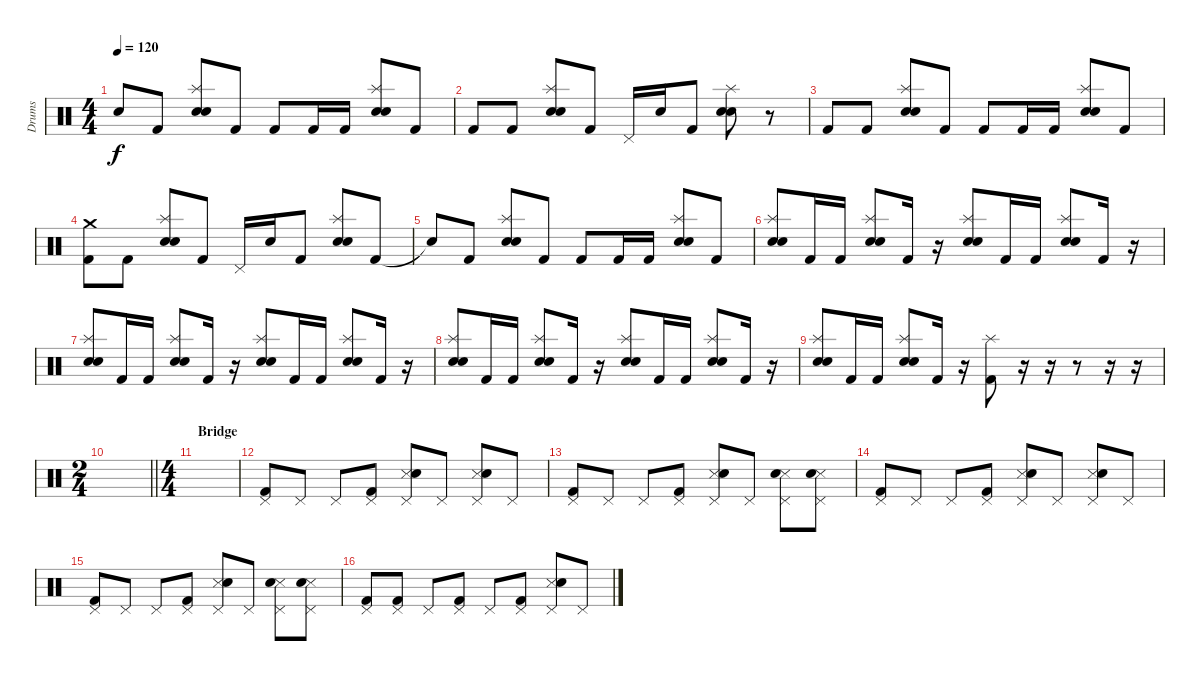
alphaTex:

\track ("Drums" "Drums") {instrument percussion}
\staff {score}
\articulation defaults
\ts (4 4)
\tempo 120
\clef neutral
\ks c "Snare (hit)"{t}.8{dy f} "Kick (hit) 2".8
("Splash (hit)" "Electric Snare (hit)" "Snare (hit) 2").8 "Kick (hit) 2".8 "Kick (hit) 2".8 "Kick (hit) 2".16 "Kick (hit) 2".16 ("Splash (hit)" "Electric Snare (hit)" "Snare (hit) 2").8 "Kick (hit) 2".8 |
"Kick (hit) 2".8 "Kick (hit) 2".8 ("Splash (hit)" "Electric Snare (hit)" "Snare (hit) 2").8 "Kick (hit) 2".8 "Pedal Hi-Hat (hit)".16 "Electric Snare (hit)".16 "Kick (hit) 2".8 ("Splash (hit)" "Electric Snare (hit)" "Snare (hit) 2").8 r.8 |
"Kick (hit) 2".8 "Kick (hit) 2".8 ("Splash (hit)" "Electric Snare (hit)" "Snare (hit) 2").8 "Kick (hit) 2".8 "Kick (hit) 2".8 "Kick (hit) 2".16 "Kick (hit) 2".16 ("Splash (hit)" "Electric Snare (hit)" "Snare (hit) 2").8 "Kick (hit) 2".8 |
("Crash medium (hit)" "Kick (hit) 2").8 "Kick (hit) 2".8 ("Splash (hit)" "Electric Snare (hit)" "Snare (hit) 2").8 "Kick (hit) 2".8 "Pedal Hi-Hat (hit)".16 "Electric Snare (hit)".16 "Kick (hit) 2".8 ("Splash (hit)" "Electric Snare (hit)" "Snare (hit) 2").8 "Kick (hit) 2".8 |
"Snare (hit)"{t}.8 "Kick (hit) 2".8 ("Splash (hit)" "Electric Snare (hit)" "Snare (hit) 2").8 "Kick (hit) 2".8 "Kick (hit) 2".8 "Kick (hit) 2".16 "Kick (hit) 2".16 ("Splash (hit)" "Electric Snare (hit)" "Snare (hit) 2").8 "Kick (hit) 2".8 |
("Splash (hit)" "Electric Snare (hit)" "Snare (hit) 2").8 "Kick (hit) 2".16 "Kick (hit) 2".16 ("Splash (hit)" "Electric Snare (hit)" "Snare (hit) 2").8 "Kick (hit) 2".16 r.16 ("Splash (hit)" "Electric Snare (hit)" "Snare (hit) 2").8 "Kick (hit) 2".16 "Kick (hit) 2".16 ("Splash (hit)" "Electric Snare (hit)" "Snare (hit) 2").8 "Kick (hit) 2".16 r.16 |
("Splash (hit)" "Electric Snare (hit)" "Snare (hit) 2").8 "Kick (hit) 2".16 "Kick (hit) 2".16 ("Splash (hit)" "Electric Snare (hit)" "Snare (hit) 2").8 "Kick (hit) 2".16 r.16 ("Splash (hit)" "Electric Snare (hit)" "Snare (hit) 2").8 "Kick (hit) 2".16 "Kick (hit) 2".16 ("Splash (hit)" "Electric Snare (hit)" "Snare (hit) 2").8 "Kick (hit) 2".16 r.16 |
("Splash (hit)" "Electric Snare (hit)" "Snare (hit) 2").8 "Kick (hit) 2".16 "Kick (hit) 2".16 ("Splash (hit)" "Electric Snare (hit)" "Snare (hit) 2").8 "Kick (hit) 2".16 r.16 ("Splash (hit)" "Electric Snare (hit)" "Snare (hit) 2").8 "Kick (hit) 2".16 "Kick (hit) 2".16 ("Splash (hit)" "Electric Snare (hit)" "Snare (hit) 2").8 "Kick (hit) 2".16 r.16 |
("Splash (hit)" "Electric Snare (hit)" "Snare (hit) 2").8 "Kick (hit) 2".16 "Kick (hit) 2".16 ("Splash (hit)" "Electric Snare (hit)" "Snare (hit) 2").8 "Kick (hit) 2".16 r.16 ("Splash (hit)" "Kick (hit) 2").8 r.16 r.16 r.8 r.16 r.16 |
\ts (2 4)
\barLineRight lightlight
|
\ts (4 4)
\section ("" "Bridge")
|
("Pedal Hi-Hat (hit)" "Kick (hit) 2").8 "Pedal Hi-Hat (hit)".8 "Pedal Hi-Hat (hit)".8 ("Pedal Hi-Hat (hit)" "Kick (hit) 2").8 ("Pedal Hi-Hat (hit)" "Snare (side stick) 3" "Electric Snare (hit)").8 "Pedal Hi-Hat (hit)".8 ("Pedal Hi-Hat (hit)" "Snare (side stick) 3" "Electric Snare (hit)").8 "Pedal Hi-Hat (hit)".8 |
("Pedal Hi-Hat (hit)" "Kick (hit) 2").8 "Pedal Hi-Hat (hit)".8 "Pedal Hi-Hat (hit)".8 ("Pedal Hi-Hat (hit)" "Kick (hit) 2").8 ("Pedal Hi-Hat (hit)" "Snare (side stick) 3" "Electric Snare (hit)").8 "Pedal Hi-Hat (hit)".8 ("Pedal Hi-Hat (hit)" "Snare (side stick) 3" "Electric Snare (hit)").8 ("Pedal Hi-Hat (hit)" "Snare (side stick) 3" "Electric Snare (hit)").8 |
("Pedal Hi-Hat (hit)" "Kick (hit) 2").8 "Pedal Hi-Hat (hit)".8 "Pedal Hi-Hat (hit)".8 ("Pedal Hi-Hat (hit)" "Kick (hit) 2").8 ("Pedal Hi-Hat (hit)" "Snare (side stick) 3" "Electric Snare (hit)").8 "Pedal Hi-Hat (hit)".8 ("Pedal Hi-Hat (hit)" "Snare (side stick) 3" "Electric Snare (hit)").8 "Pedal Hi-Hat (hit)".8 |
("Pedal Hi-Hat (hit)" "Kick (hit) 2").8 "Pedal Hi-Hat (hit)".8 "Pedal Hi-Hat (hit)".8 ("Pedal Hi-Hat (hit)" "Kick (hit) 2").8 ("Pedal Hi-Hat (hit)" "Snare (side stick) 3" "Electric Snare (hit)").8 "Pedal Hi-Hat (hit)".8 ("Pedal Hi-Hat (hit)" "Snare (side stick) 3" "Electric Snare (hit)").8 ("Pedal Hi-Hat (hit)" "Snare (side stick) 3" "Electric Snare (hit)").8 |
("Pedal Hi-Hat (hit)" "Kick (hit) 2").8 ("Pedal Hi-Hat (hit)" "Kick (hit) 2").8 "Pedal Hi-Hat (hit)".8 ("Pedal Hi-Hat (hit)" "Kick (hit) 2").8 "Pedal Hi-Hat (hit)".8 ("Pedal Hi-Hat (hit)" "Kick (hit) 2").8 ("Pedal Hi-Hat (hit)" "Snare (side stick) 3" "Electric Snare (hit)").8 "Pedal Hi-Hat (hit)".8
